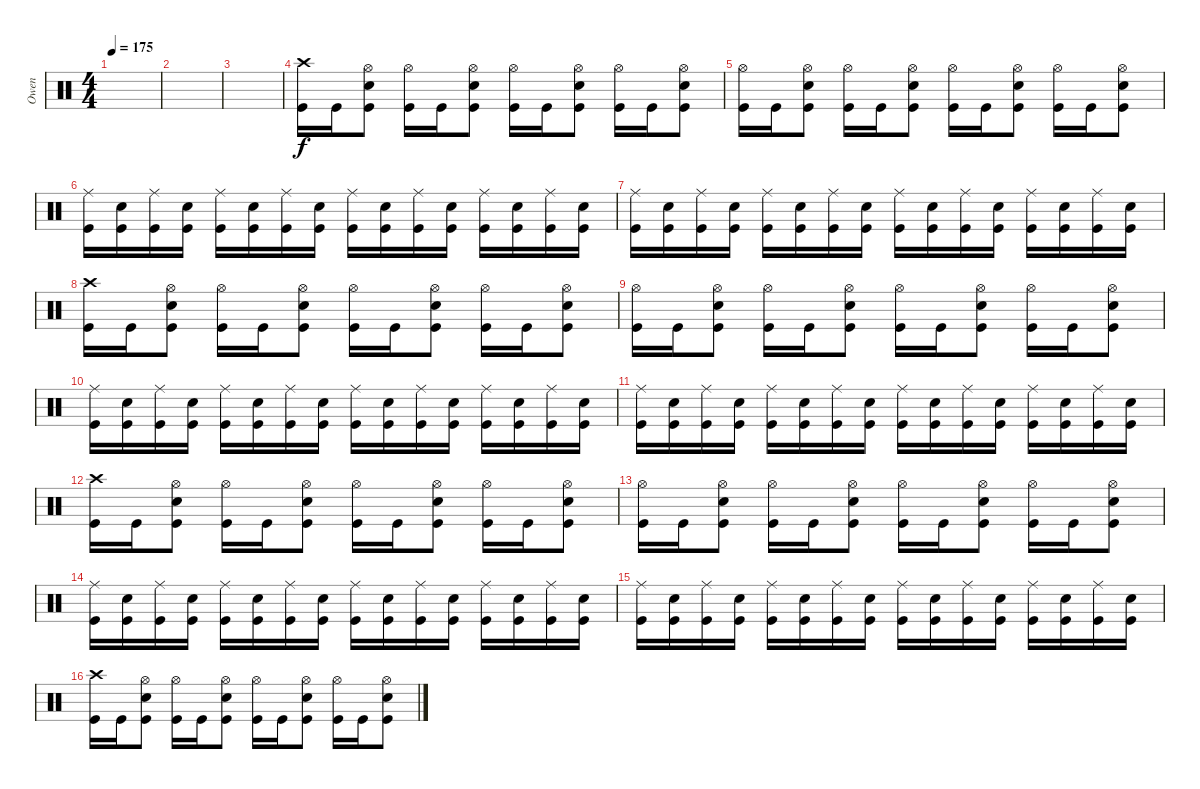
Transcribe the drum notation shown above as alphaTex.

\track ("Owen" "Owen") {instrument percussion}
\staff {score}
\articulation defaults
\ts (4 4)
\tempo 175
\clef neutral
\ks c
|
|
|
("Crash high (hit)" "Kick (hit)").16 "Kick (hit)".16 ("Hi-Hat (open)" "Snare (hit) 2" "Kick (hit)").8 ("Hi-Hat (open)" "Kick (hit)").16 "Kick (hit)".16 ("Hi-Hat (open)" "Snare (hit) 2" "Kick (hit)").8 ("Hi-Hat (open)" "Kick (hit)").16 "Kick (hit)".16 ("Hi-Hat (open)" "Snare (hit) 2" "Kick (hit)").8 ("Hi-Hat (open)" "Kick (hit)").16 "Kick (hit)".16 ("Hi-Hat (open)" "Snare (hit) 2" "Kick (hit)").8 |
("Hi-Hat (open)" "Kick (hit)").16 "Kick (hit)".16 ("Hi-Hat (open)" "Snare (hit) 2" "Kick (hit)").8 ("Hi-Hat (open)" "Kick (hit)").16 "Kick (hit)".16 ("Hi-Hat (open)" "Snare (hit) 2" "Kick (hit)").8 ("Hi-Hat (open)" "Kick (hit)").16 "Kick (hit)".16 ("Hi-Hat (open)" "Snare (hit) 2" "Kick (hit)").8 ("Hi-Hat (open)" "Kick (hit)").16 "Kick (hit)".16 ("Hi-Hat (open)" "Snare (hit) 2" "Kick (hit)").8 |
("Ride (middle)" "Kick (hit)").16 ("Snare (hit) 2" "Kick (hit)").16 ("Ride (middle)" "Kick (hit)").16 ("Snare (hit) 2" "Kick (hit)").16 ("Ride (middle)" "Kick (hit)").16 ("Snare (hit) 2" "Kick (hit)").16 ("Ride (middle)" "Kick (hit)").16 ("Snare (hit) 2" "Kick (hit)").16 ("Ride (middle)" "Kick (hit)").16 ("Snare (hit) 2" "Kick (hit)").16 ("Ride (middle)" "Kick (hit)").16 ("Snare (hit) 2" "Kick (hit)").16 ("Ride (middle)" "Kick (hit)").16 ("Snare (hit) 2" "Kick (hit)").16 ("Ride (middle)" "Kick (hit)").16 ("Snare (hit) 2" "Kick (hit)").16 |
("Ride (middle)" "Kick (hit)").16 ("Snare (hit) 2" "Kick (hit)").16 ("Ride (middle)" "Kick (hit)").16 ("Snare (hit) 2" "Kick (hit)").16 ("Ride (middle)" "Kick (hit)").16 ("Snare (hit) 2" "Kick (hit)").16 ("Ride (middle)" "Kick (hit)").16 ("Snare (hit) 2" "Kick (hit)").16 ("Ride (middle)" "Kick (hit)").16 ("Snare (hit) 2" "Kick (hit)").16 ("Ride (middle)" "Kick (hit)").16 ("Snare (hit) 2" "Kick (hit)").16 ("Ride (middle)" "Kick (hit)").16 ("Snare (hit) 2" "Kick (hit)").16 ("Ride (middle)" "Kick (hit)").16 ("Snare (hit) 2" "Kick (hit)").16 |
("Crash high (hit)" "Kick (hit)").16 "Kick (hit)".16 ("Hi-Hat (open)" "Snare (hit) 2" "Kick (hit)").8 ("Hi-Hat (open)" "Kick (hit)").16 "Kick (hit)".16 ("Hi-Hat (open)" "Snare (hit) 2" "Kick (hit)").8 ("Hi-Hat (open)" "Kick (hit)").16 "Kick (hit)".16 ("Hi-Hat (open)" "Snare (hit) 2" "Kick (hit)").8 ("Hi-Hat (open)" "Kick (hit)").16 "Kick (hit)".16 ("Hi-Hat (open)" "Snare (hit) 2" "Kick (hit)").8 |
("Hi-Hat (open)" "Kick (hit)").16 "Kick (hit)".16 ("Hi-Hat (open)" "Snare (hit) 2" "Kick (hit)").8 ("Hi-Hat (open)" "Kick (hit)").16 "Kick (hit)".16 ("Hi-Hat (open)" "Snare (hit) 2" "Kick (hit)").8 ("Hi-Hat (open)" "Kick (hit)").16 "Kick (hit)".16 ("Hi-Hat (open)" "Snare (hit) 2" "Kick (hit)").8 ("Hi-Hat (open)" "Kick (hit)").16 "Kick (hit)".16 ("Hi-Hat (open)" "Snare (hit) 2" "Kick (hit)").8 |
("Ride (middle)" "Kick (hit)").16 ("Snare (hit) 2" "Kick (hit)").16 ("Ride (middle)" "Kick (hit)").16 ("Snare (hit) 2" "Kick (hit)").16 ("Ride (middle)" "Kick (hit)").16 ("Snare (hit) 2" "Kick (hit)").16 ("Ride (middle)" "Kick (hit)").16 ("Snare (hit) 2" "Kick (hit)").16 ("Ride (middle)" "Kick (hit)").16 ("Snare (hit) 2" "Kick (hit)").16 ("Ride (middle)" "Kick (hit)").16 ("Snare (hit) 2" "Kick (hit)").16 ("Ride (middle)" "Kick (hit)").16 ("Snare (hit) 2" "Kick (hit)").16 ("Ride (middle)" "Kick (hit)").16 ("Snare (hit) 2" "Kick (hit)").16 |
("Ride (middle)" "Kick (hit)").16 ("Snare (hit) 2" "Kick (hit)").16 ("Ride (middle)" "Kick (hit)").16 ("Snare (hit) 2" "Kick (hit)").16 ("Ride (middle)" "Kick (hit)").16 ("Snare (hit) 2" "Kick (hit)").16 ("Ride (middle)" "Kick (hit)").16 ("Snare (hit) 2" "Kick (hit)").16 ("Ride (middle)" "Kick (hit)").16 ("Snare (hit) 2" "Kick (hit)").16 ("Ride (middle)" "Kick (hit)").16 ("Snare (hit) 2" "Kick (hit)").16 ("Ride (middle)" "Kick (hit)").16 ("Snare (hit) 2" "Kick (hit)").16 ("Ride (middle)" "Kick (hit)").16 ("Snare (hit) 2" "Kick (hit)").16 |
("Crash high (hit)" "Kick (hit)").16 "Kick (hit)".16 ("Hi-Hat (open)" "Snare (hit) 2" "Kick (hit)").8 ("Hi-Hat (open)" "Kick (hit)").16 "Kick (hit)".16 ("Hi-Hat (open)" "Snare (hit) 2" "Kick (hit)").8 ("Hi-Hat (open)" "Kick (hit)").16 "Kick (hit)".16 ("Hi-Hat (open)" "Snare (hit) 2" "Kick (hit)").8 ("Hi-Hat (open)" "Kick (hit)").16 "Kick (hit)".16 ("Hi-Hat (open)" "Snare (hit) 2" "Kick (hit)").8 |
("Hi-Hat (open)" "Kick (hit)").16 "Kick (hit)".16 ("Hi-Hat (open)" "Snare (hit) 2" "Kick (hit)").8 ("Hi-Hat (open)" "Kick (hit)").16 "Kick (hit)".16 ("Hi-Hat (open)" "Snare (hit) 2" "Kick (hit)").8 ("Hi-Hat (open)" "Kick (hit)").16 "Kick (hit)".16 ("Hi-Hat (open)" "Snare (hit) 2" "Kick (hit)").8 ("Hi-Hat (open)" "Kick (hit)").16 "Kick (hit)".16 ("Hi-Hat (open)" "Snare (hit) 2" "Kick (hit)").8 |
("Ride (middle)" "Kick (hit)").16 ("Snare (hit) 2" "Kick (hit)").16 ("Ride (middle)" "Kick (hit)").16 ("Snare (hit) 2" "Kick (hit)").16 ("Ride (middle)" "Kick (hit)").16 ("Snare (hit) 2" "Kick (hit)").16 ("Ride (middle)" "Kick (hit)").16 ("Snare (hit) 2" "Kick (hit)").16 ("Ride (middle)" "Kick (hit)").16 ("Snare (hit) 2" "Kick (hit)").16 ("Ride (middle)" "Kick (hit)").16 ("Snare (hit) 2" "Kick (hit)").16 ("Ride (middle)" "Kick (hit)").16 ("Snare (hit) 2" "Kick (hit)").16 ("Ride (middle)" "Kick (hit)").16 ("Snare (hit) 2" "Kick (hit)").16 |
("Ride (middle)" "Kick (hit)").16 ("Snare (hit) 2" "Kick (hit)").16 ("Ride (middle)" "Kick (hit)").16 ("Snare (hit) 2" "Kick (hit)").16 ("Ride (middle)" "Kick (hit)").16 ("Snare (hit) 2" "Kick (hit)").16 ("Ride (middle)" "Kick (hit)").16 ("Snare (hit) 2" "Kick (hit)").16 ("Ride (middle)" "Kick (hit)").16 ("Snare (hit) 2" "Kick (hit)").16 ("Ride (middle)" "Kick (hit)").16 ("Snare (hit) 2" "Kick (hit)").16 ("Ride (middle)" "Kick (hit)").16 ("Snare (hit) 2" "Kick (hit)").16 ("Ride (middle)" "Kick (hit)").16 ("Snare (hit) 2" "Kick (hit)").16 |
("Crash high (hit)" "Kick (hit)").16 "Kick (hit)".16 ("Hi-Hat (open)" "Snare (hit) 2" "Kick (hit)").8 ("Hi-Hat (open)" "Kick (hit)").16 "Kick (hit)".16 ("Hi-Hat (open)" "Snare (hit) 2" "Kick (hit)").8 ("Hi-Hat (open)" "Kick (hit)").16 "Kick (hit)".16 ("Hi-Hat (open)" "Snare (hit) 2" "Kick (hit)").8 ("Hi-Hat (open)" "Kick (hit)").16 "Kick (hit)".16 ("Hi-Hat (open)" "Snare (hit) 2" "Kick (hit)").8
